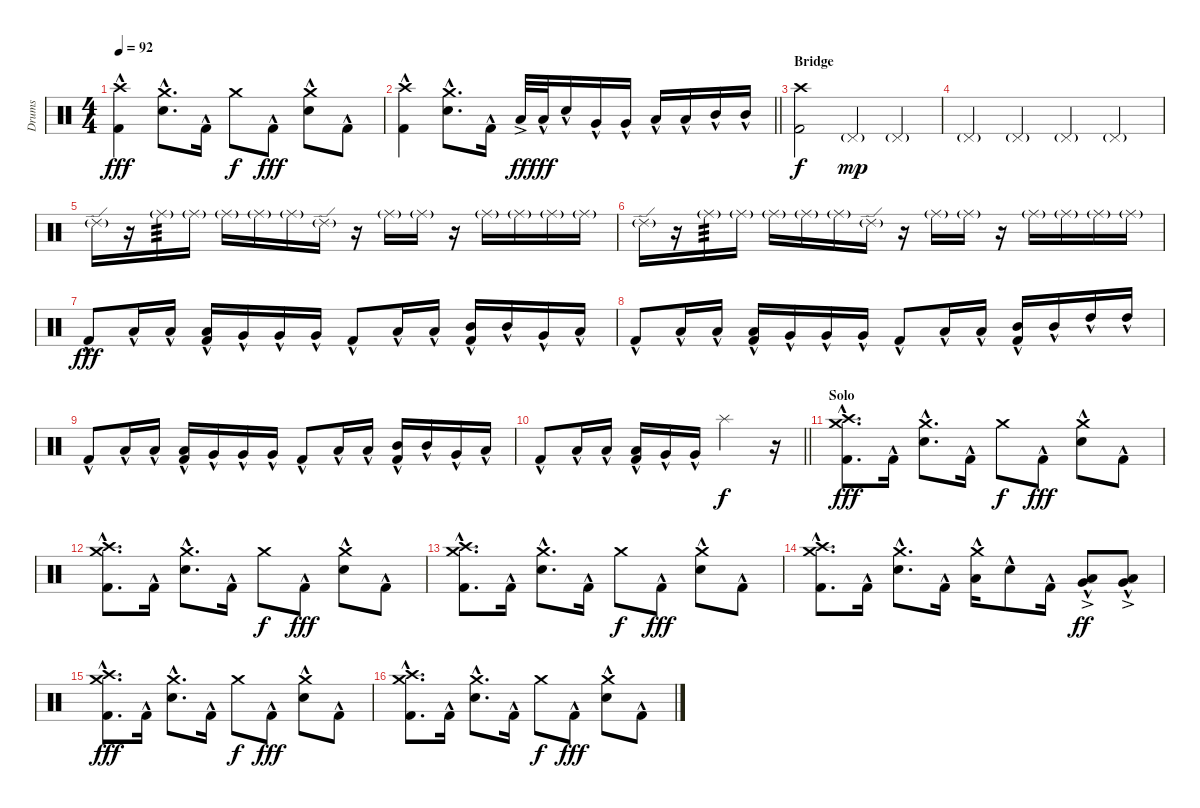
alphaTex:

\track ("Drums" "Drums") {instrument percussion}
\staff {score}
\articulation defaults
\ts (4 4)
\tempo 92
\clef neutral
\ks c
("Crash high (hit)" "Kick (hit) 2"{hac}).4{dy fff} ("Crash medium (hit)" "Electric Snare (hit)"{hac}).8{d} "Kick (hit) 2"{hac}.16 "Crash medium (hit)".8{dy f} "Kick (hit) 2"{hac}.8{dy fff} ("Crash medium (hit)" "Electric Snare (hit)"{hac}).8 "Kick (hit) 2"{hac}.8 |
\barLineRight lightlight
("Crash high (hit)" "Kick (hit) 2"{hac}).4 ("Crash medium (hit)" "Electric Snare (hit)"{hac}).8{d} "Kick (hit) 2"{hac}.16 "Low Floor Tom (hit)"{ac}.32{dy ff} "Low Floor Tom (hit)"{hac}.32{dy fff} "Electric Snare (hit)"{hac}.16 "Very Low Tom (hit)"{hac}.16 "Very Low Tom (hit)"{hac}.16 "Low Tom (hit)"{hac}.16 "Low Tom (hit)"{hac}.16 "Mid Tom (hit)"{hac}.16 "Mid Tom (hit)"{hac}.16 |
\section ("" "Bridge")
("Crash high (hit)" "Kick (hit) 2").2{dy f} "Pedal Hi-Hat (hit)"{g}.4{dy mp volume 2} "Pedal Hi-Hat (hit)"{g}.4 |
"Pedal Hi-Hat (hit)"{g}.4 "Pedal Hi-Hat (hit)"{g}.4 "Pedal Hi-Hat (hit)"{g}.4 "Pedal Hi-Hat (hit)"{g}.4 |
"Ride (edge) 2"{g}.16 r.16 "Ride (middle)"{g}.16{tp 3} "Ride (middle)"{g}.16 "Ride (middle)"{g}.16 "Ride (middle)"{g}.16 "Ride (middle)"{g}.16 "Ride (edge) 2"{g}.16 r.16 "Ride (middle)"{g}.16 "Ride (middle)"{g}.16 r.16 "Ride (middle)"{g}.16 "Ride (middle)"{g}.16 "Ride (middle)"{g}.16 "Ride (middle)"{g}.16 |
"Ride (edge) 2"{g}.16 r.16 "Ride (middle)"{g}.16{tp 3} "Ride (middle)"{g}.16 "Ride (middle)"{g}.16 "Ride (middle)"{g}.16 "Ride (middle)"{g}.16 "Ride (edge) 2"{g}.16 r.16 "Ride (middle)"{g}.16 "Ride (middle)"{g}.16 r.16 "Ride (middle)"{g}.16 "Ride (middle)"{g}.16 "Ride (middle)"{g}.16 "Ride (middle)"{g}.16 |
"Kick (hit) 2"{hac}.8{dy fff volume 12} "Low Floor Tom (hit)"{hac}.16 "Low Floor Tom (hit)"{hac}.16 ("Low Floor Tom (hit)" "Kick (hit) 2"{hac}).16 "Very Low Tom (hit)"{hac}.16 "Very Low Tom (hit)"{hac}.16 "Very Low Tom (hit)"{hac}.16 "Kick (hit) 2"{hac}.8 "Low Tom (hit)"{hac}.16 "Low Tom (hit)"{hac}.16 ("Mid Tom (hit)"{hac} "Kick (hit) 2"{hac}).16 "Mid Tom (hit)"{hac}.16 "Very Low Tom (hit)"{hac}.16 "Low Tom (hit)"{hac}.16 |
"Kick (hit) 2"{hac}.8 "Low Floor Tom (hit)"{hac}.16 "Low Floor Tom (hit)"{hac}.16 ("Low Floor Tom (hit)" "Kick (hit) 2"{hac}).16 "Very Low Tom (hit)"{hac}.16 "Very Low Tom (hit)"{hac}.16 "Very Low Tom (hit)"{hac}.16 "Kick (hit) 2"{hac}.8 "Low Tom (hit)"{hac}.16 "Low Tom (hit)"{hac}.16 ("Mid Tom (hit)"{hac} "Kick (hit) 2"{hac}).16 "Mid Tom (hit)"{hac}.16 "High Tom (hit)"{hac}.16 "High Tom (hit)"{hac}.16 |
"Kick (hit) 2"{hac}.8 "Low Floor Tom (hit)"{hac}.16 "Low Floor Tom (hit)"{hac}.16 ("Low Floor Tom (hit)" "Kick (hit) 2"{hac}).16 "Very Low Tom (hit)"{hac}.16 "Very Low Tom (hit)"{hac}.16 "Very Low Tom (hit)"{hac}.16 "Kick (hit) 2"{hac}.8 "Low Tom (hit)"{hac}.16 "Low Tom (hit)"{hac}.16 ("Mid Tom (hit)"{hac} "Kick (hit) 2"{hac}).16 "Mid Tom (hit)"{hac}.16 "Very Low Tom (hit)"{hac}.16 "Low Tom (hit)"{hac}.16 |
\barLineRight lightlight "Kick (hit) 2"{hac}.8{volume 13} "Low Floor Tom (hit)"{hac}.16 "Low Floor Tom (hit)"{hac}.16
("Low Floor Tom (hit)" "Kick (hit) 2"{hac}).16 "Very Low Tom (hit)"{hac}.16 "Very Low Tom (hit)"{hac}.16 "Splash (hit)".2{dy f volume 15} r.16 |
\section ("" "Solo")
("Crash medium (hit)" "Crash high (hit)" "Kick (hit) 2"{hac}).8{d dy fff} "Kick (hit) 2"{hac}.16 ("Crash medium (hit)" "Electric Snare (hit)"{hac}).8{d} "Kick (hit) 2"{hac}.16 "Crash medium (hit)".8{dy f} "Kick (hit) 2"{hac}.8{dy fff} ("Crash medium (hit)" "Electric Snare (hit)"{hac}).8 "Kick (hit) 2"{hac}.8 |
("Crash medium (hit)" "Crash high (hit)" "Kick (hit) 2"{hac}).8{d} "Kick (hit) 2"{hac}.16 ("Crash medium (hit)" "Electric Snare (hit)"{hac}).8{d} "Kick (hit) 2"{hac}.16 "Crash medium (hit)".8{dy f} "Kick (hit) 2"{hac}.8{dy fff} ("Crash medium (hit)" "Electric Snare (hit)"{hac}).8 "Kick (hit) 2"{hac}.8 |
("Crash medium (hit)" "Crash high (hit)" "Kick (hit) 2"{hac}).8{d} "Kick (hit) 2"{hac}.16 ("Crash medium (hit)" "Electric Snare (hit)"{hac}).8{d} "Kick (hit) 2"{hac}.16 "Crash medium (hit)".8{dy f} "Kick (hit) 2"{hac}.8{dy fff} ("Crash medium (hit)" "Electric Snare (hit)"{hac}).8 "Kick (hit) 2"{hac}.8 |
("Crash medium (hit)" "Crash high (hit)" "Kick (hit) 2"{hac}).8{d} "Kick (hit) 2"{hac}.16 ("Crash medium (hit)" "Electric Snare (hit)"{hac}).8{d} "Kick (hit) 2"{hac}.16 ("Crash medium (hit)" "Low Floor Tom (hit)"{hac}).16 "Electric Snare (hit)"{hac}.8 "Kick (hit) 2"{hac}.16 ("Very Low Tom (hit)"{hac} "Low Floor Tom (hit)"{ac}).8{dy ff} ("Low Tom (hit)"{hac} "Very Low Tom (hit)"{ac}).8 |
("Crash medium (hit)" "Crash high (hit)" "Kick (hit) 2"{hac}).8{d dy fff} "Kick (hit) 2"{hac}.16 ("Crash medium (hit)" "Electric Snare (hit)"{hac}).8{d} "Kick (hit) 2"{hac}.16 "Crash medium (hit)".8{dy f} "Kick (hit) 2"{hac}.8{dy fff} ("Crash medium (hit)" "Electric Snare (hit)"{hac}).8 "Kick (hit) 2"{hac}.8 |
("Crash medium (hit)" "Crash high (hit)" "Kick (hit) 2"{hac}).8{d} "Kick (hit) 2"{hac}.16 ("Crash medium (hit)" "Electric Snare (hit)"{hac}).8{d} "Kick (hit) 2"{hac}.16 "Crash medium (hit)".8{dy f} "Kick (hit) 2"{hac}.8{dy fff} ("Crash medium (hit)" "Electric Snare (hit)"{hac}).8 "Kick (hit) 2"{hac}.8
